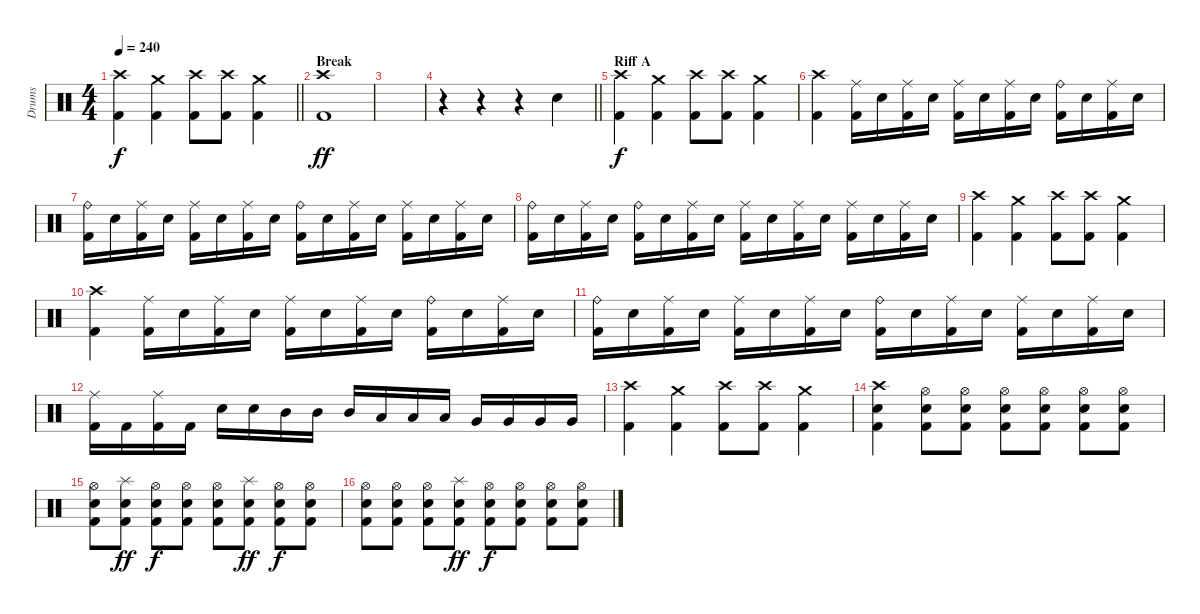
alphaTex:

\track ("Drums" "Drums") {instrument percussion}
\staff {score}
\articulation defaults
\ts (4 4)
\tempo 240
\clef neutral
\barLineRight lightlight
\ks c
("Crash high (hit)" "Kick (hit) 2").4{dy f} ("Crash medium (hit)" "Kick (hit) 2").4 ("Crash high (hit)" "Kick (hit) 2").8 ("Crash high (hit)" "Kick (hit) 2").8 ("Crash medium (hit)" "Kick (hit) 2").4 |
\section ("" "Break")
("Crash high (hit)" "Kick (hit) 2").1{dy ff} |
|
\barLineRight lightlight
r.4 r.4 r.4 "Electric Snare (hit)".4 |
\section ("" "Riff A")
("Crash high (hit)" "Kick (hit) 2").4{dy f} ("Crash medium (hit)" "Kick (hit) 2").4 ("Crash high (hit)" "Kick (hit) 2").8 ("Crash high (hit)" "Kick (hit) 2").8 ("Crash medium (hit)" "Kick (hit) 2").4 |
("Crash high (hit)" "Kick (hit) 2").4 ("Ride (middle)" "Kick (hit) 2").16 "Electric Snare (hit)".16 ("Ride (middle)" "Kick (hit) 2").16 "Electric Snare (hit)".16 ("Ride (middle)" "Kick (hit) 2").16 "Electric Snare (hit)".16 ("Ride (middle)" "Kick (hit) 2").16 "Electric Snare (hit)".16 ("Ride (bell)" "Kick (hit) 2").16 "Electric Snare (hit)".16 ("Ride (middle)" "Kick (hit) 2").16 "Electric Snare (hit)".16 |
("Ride (bell)" "Kick (hit) 2").16 "Electric Snare (hit)".16 ("Ride (middle)" "Kick (hit) 2").16 "Electric Snare (hit)".16 ("Ride (middle)" "Kick (hit) 2").16 "Electric Snare (hit)".16 ("Ride (middle)" "Kick (hit) 2").16 "Electric Snare (hit)".16 ("Ride (bell)" "Kick (hit) 2").16 "Electric Snare (hit)".16 ("Ride (middle)" "Kick (hit) 2").16 "Electric Snare (hit)".16 ("Ride (middle)" "Kick (hit) 2").16 "Electric Snare (hit)".16 ("Ride (middle)" "Kick (hit) 2").16 "Electric Snare (hit)".16 |
("Ride (bell)" "Kick (hit) 2").16 "Electric Snare (hit)".16 ("Ride (middle)" "Kick (hit) 2").16 "Electric Snare (hit)".16 ("Ride (bell)" "Kick (hit) 2").16 "Electric Snare (hit)".16 ("Ride (middle)" "Kick (hit) 2").16 "Electric Snare (hit)".16 ("Ride (middle)" "Kick (hit) 2").16 "Electric Snare (hit)".16 ("Ride (middle)" "Kick (hit) 2").16 "Electric Snare (hit)".16 ("Ride (middle)" "Kick (hit) 2").16 "Electric Snare (hit)".16 ("Ride (middle)" "Kick (hit) 2").16 "Electric Snare (hit)".16 |
("Crash high (hit)" "Kick (hit) 2").4 ("Crash medium (hit)" "Kick (hit) 2").4 ("Crash high (hit)" "Kick (hit) 2").8 ("Crash high (hit)" "Kick (hit) 2").8 ("Crash medium (hit)" "Kick (hit) 2").4 |
("Crash high (hit)" "Kick (hit) 2").4 ("Ride (middle)" "Kick (hit) 2").16 "Electric Snare (hit)".16 ("Ride (middle)" "Kick (hit) 2").16 "Electric Snare (hit)".16 ("Ride (middle)" "Kick (hit) 2").16 "Electric Snare (hit)".16 ("Ride (middle)" "Kick (hit) 2").16 "Electric Snare (hit)".16 ("Ride (bell)" "Kick (hit) 2").16 "Electric Snare (hit)".16 ("Ride (middle)" "Kick (hit) 2").16 "Electric Snare (hit)".16 |
("Ride (bell)" "Kick (hit) 2").16 "Electric Snare (hit)".16 ("Ride (middle)" "Kick (hit) 2").16 "Electric Snare (hit)".16 ("Ride (middle)" "Kick (hit) 2").16 "Electric Snare (hit)".16 ("Ride (middle)" "Kick (hit) 2").16 "Electric Snare (hit)".16 ("Ride (bell)" "Kick (hit) 2").16 "Electric Snare (hit)".16 ("Ride (middle)" "Kick (hit) 2").16 "Electric Snare (hit)".16 ("Ride (middle)" "Kick (hit) 2").16 "Electric Snare (hit)".16 ("Ride (middle)" "Kick (hit) 2").16 "Electric Snare (hit)".16 |
("Ride (middle)" "Kick (hit) 2").16 "Kick (hit) 2".16 ("Ride (middle)" "Kick (hit) 2").16 "Kick (hit) 2".16 "Electric Snare (hit)".16 "Electric Snare (hit)".16 "Mid Tom (hit)".16 "Mid Tom (hit)".16 "Mid Tom (hit)".16 "Low Tom (hit)".16 "Low Tom (hit)".16 "Low Tom (hit)".16 "Very Low Tom (hit)".16 "Very Low Tom (hit)".16 "Very Low Tom (hit)".16 "Very Low Tom (hit)".16 |
("Crash high (hit)" "Kick (hit) 2").4 ("Crash medium (hit)" "Kick (hit) 2").4 ("Crash high (hit)" "Kick (hit) 2").8 ("Crash high (hit)" "Kick (hit) 2").8 ("Crash medium (hit)" "Kick (hit) 2").4 |
("Crash high (hit)" "Electric Snare (hit)" "Kick (hit) 2").4 ("Hi-Hat (open)" "Electric Snare (hit)" "Kick (hit) 2").8 ("Hi-Hat (open)" "Electric Snare (hit)" "Kick (hit) 2").8 ("Hi-Hat (open)" "Electric Snare (hit)" "Kick (hit) 2").8 ("Hi-Hat (open)" "Electric Snare (hit)" "Kick (hit) 2").8 ("Hi-Hat (open)" "Electric Snare (hit)" "Kick (hit) 2").8 ("Hi-Hat (open)" "Electric Snare (hit)" "Kick (hit) 2").8 |
("Hi-Hat (open)" "Electric Snare (hit)" "Kick (hit) 2").8 ("Splash (hit)" "Electric Snare (hit)" "Kick (hit) 2").8{dy ff} ("Hi-Hat (open)" "Electric Snare (hit)" "Kick (hit) 2").8{dy f} ("Hi-Hat (open)" "Electric Snare (hit)" "Kick (hit) 2").8 ("Hi-Hat (open)" "Electric Snare (hit)" "Kick (hit) 2").8 ("Splash (hit)" "Electric Snare (hit)" "Kick (hit) 2").8{dy ff} ("Hi-Hat (open)" "Electric Snare (hit)" "Kick (hit) 2").8{dy f} ("Hi-Hat (open)" "Electric Snare (hit)" "Kick (hit) 2").8 |
("Hi-Hat (open)" "Electric Snare (hit)" "Kick (hit) 2").8 ("Hi-Hat (open)" "Electric Snare (hit)" "Kick (hit) 2").8 ("Hi-Hat (open)" "Electric Snare (hit)" "Kick (hit) 2").8 ("Splash (hit)" "Electric Snare (hit)" "Kick (hit) 2").8{dy ff} ("Hi-Hat (open)" "Electric Snare (hit)" "Kick (hit) 2").8{dy f} ("Hi-Hat (open)" "Electric Snare (hit)" "Kick (hit) 2").8 ("Hi-Hat (open)" "Electric Snare (hit)" "Kick (hit) 2").8 ("Hi-Hat (open)" "Electric Snare (hit)" "Kick (hit) 2").8
